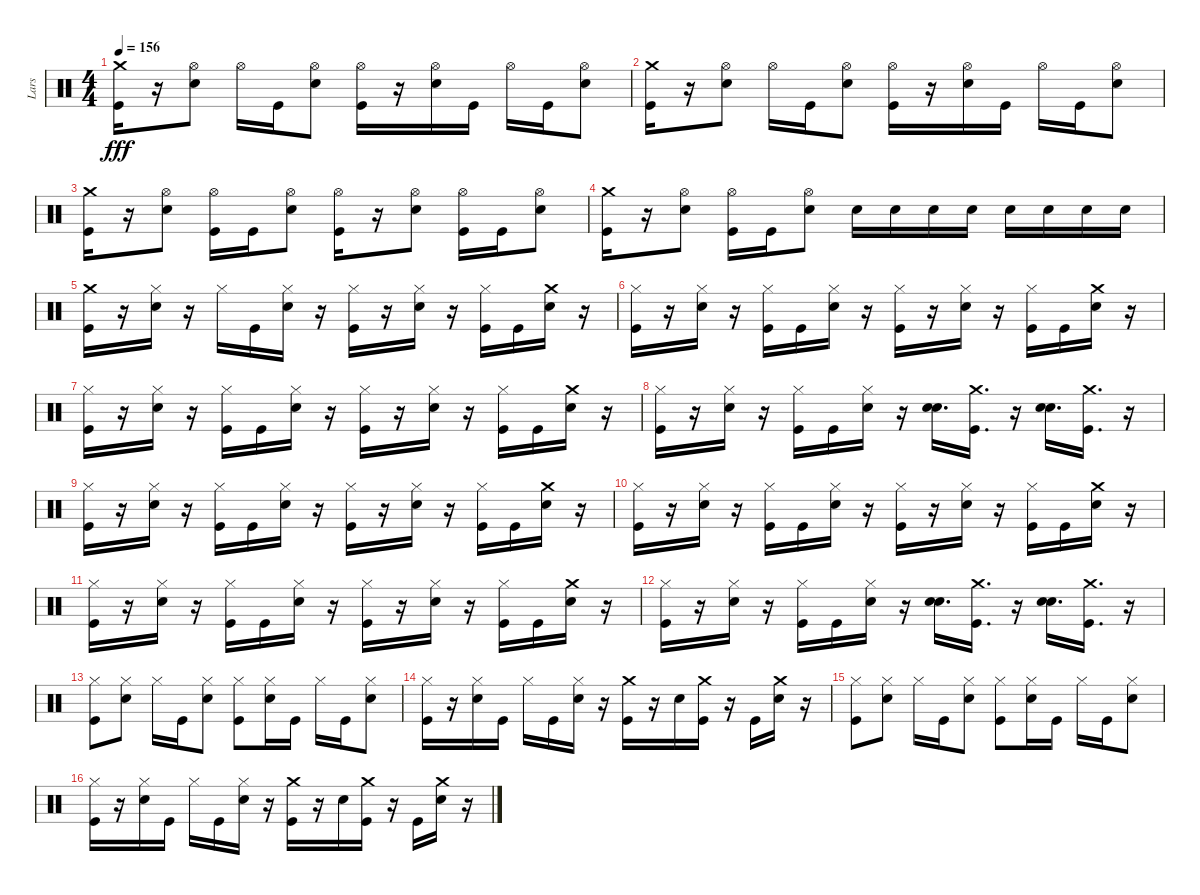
\track ("Lars" "Lars") {instrument percussion bank 102}
\staff {score}
\articulation defaults
\ts (4 4)
\tempo 156
\clef neutral
\ks c
("Kick (hit)" "Crash medium (hit)").16{dy fff} r.16 ("Snare (hit) 2" "Hi-Hat (open)").8 "Hi-Hat (open)".16 "Kick (hit)".16 ("Snare (hit) 2" "Hi-Hat (open)").8 ("Kick (hit)" "Hi-Hat (open)").16 r.16 ("Snare (hit) 2" "Hi-Hat (open)").16 "Kick (hit)".16 "Hi-Hat (open)".16 "Kick (hit)".16 ("Snare (hit) 2" "Hi-Hat (open)").8 |
("Kick (hit)" "Crash medium (hit)").16 r.16 ("Snare (hit) 2" "Hi-Hat (open)").8 "Hi-Hat (open)".16 "Kick (hit)".16 ("Snare (hit) 2" "Hi-Hat (open)").8 ("Kick (hit)" "Hi-Hat (open)").16 r.16 ("Snare (hit) 2" "Hi-Hat (open)").16 "Kick (hit)".16 "Hi-Hat (open)".16 "Kick (hit)".16 ("Snare (hit) 2" "Hi-Hat (open)").8 |
("Kick (hit)" "Crash medium (hit)").16 r.16 ("Snare (hit) 2" "Hi-Hat (open)").8 ("Kick (hit)" "Hi-Hat (open)").16 "Kick (hit)".16 ("Snare (hit) 2" "Hi-Hat (open)").8 ("Kick (hit)" "Hi-Hat (open)").16 r.16 ("Snare (hit) 2" "Hi-Hat (open)").8 ("Kick (hit)" "Hi-Hat (open)").16 "Kick (hit)".16 ("Snare (hit) 2" "Hi-Hat (open)").8 |
("Kick (hit)" "Crash medium (hit)").16 r.16 ("Snare (hit) 2" "Hi-Hat (open)").8 ("Kick (hit)" "Hi-Hat (open)").16 "Kick (hit)".16 ("Snare (hit) 2" "Hi-Hat (open)").8 "Snare (hit) 2".16 "Snare (hit) 2".16 "Snare (hit) 2".16 "Snare (hit) 2".16 "Snare (hit) 2".16 "Snare (hit) 2".16 "Snare (hit) 2".16 "Snare (hit) 2".16 |
("Crash medium (hit)" "Kick (hit)").16 r.16 ("Snare (hit) 2" "Hi-Hat (closed)").16 r.16 "Hi-Hat (closed)".16 "Kick (hit)".16 ("Snare (hit) 2" "Hi-Hat (closed)").16 r.16 ("Hi-Hat (closed)" "Kick (hit)").16 r.16 ("Snare (hit) 2" "Hi-Hat (closed)").16 r.16 ("Hi-Hat (closed)" "Kick (hit)").16 "Kick (hit)".16 ("Crash medium (hit)" "Snare (hit) 2").16 r.16 |
("Hi-Hat (closed)" "Kick (hit)").16 r.16 ("Hi-Hat (closed)" "Snare (hit) 2").16 r.16 ("Hi-Hat (closed)" "Kick (hit)").16 "Kick (hit)".16 ("Hi-Hat (closed)" "Snare (hit) 2").16 r.16 ("Hi-Hat (closed)" "Kick (hit)").16 r.16 ("Hi-Hat (closed)" "Snare (hit) 2").16 r.16 ("Hi-Hat (closed)" "Kick (hit)").16 "Kick (hit)".16 ("Crash medium (hit)" "Snare (hit) 2").16 r.16 |
("Hi-Hat (closed)" "Kick (hit)").16 r.16 ("Hi-Hat (closed)" "Snare (hit) 2").16 r.16 ("Hi-Hat (closed)" "Kick (hit)").16 "Kick (hit)".16 ("Hi-Hat (closed)" "Snare (hit) 2").16 r.16 ("Hi-Hat (closed)" "Kick (hit)").16 r.16 ("Hi-Hat (closed)" "Snare (hit) 2").16 r.16 ("Hi-Hat (closed)" "Kick (hit)").16 "Kick (hit)".16 ("Crash medium (hit)" "Snare (hit) 2").16 r.16 |
("Hi-Hat (closed)" "Kick (hit)").16 r.16 ("Hi-Hat (closed)" "Snare (hit) 2").16 r.16 ("Hi-Hat (closed)" "Kick (hit)").16 "Kick (hit)".16 ("Hi-Hat (closed)" "Snare (hit) 2").16 r.16 ("Snare (hit) 2" "Snare (hit) 2").16{d} ("Crash medium (hit)" "Kick (hit)").16{d} r.16 ("Snare (hit) 2" "Snare (hit) 2").16{d} ("Crash medium (hit)" "Kick (hit)").16{d} r.16 |
("Hi-Hat (closed)" "Kick (hit)").16 r.16 ("Hi-Hat (closed)" "Snare (hit) 2").16 r.16 ("Hi-Hat (closed)" "Kick (hit)").16 "Kick (hit)".16 ("Hi-Hat (closed)" "Snare (hit) 2").16 r.16 ("Hi-Hat (closed)" "Kick (hit)").16 r.16 ("Hi-Hat (closed)" "Snare (hit) 2").16 r.16 ("Hi-Hat (closed)" "Kick (hit)").16 "Kick (hit)".16 ("Crash medium (hit)" "Snare (hit) 2").16 r.16 |
("Hi-Hat (closed)" "Kick (hit)").16 r.16 ("Hi-Hat (closed)" "Snare (hit) 2").16 r.16 ("Hi-Hat (closed)" "Kick (hit)").16 "Kick (hit)".16 ("Hi-Hat (closed)" "Snare (hit) 2").16 r.16 ("Hi-Hat (closed)" "Kick (hit)").16 r.16 ("Hi-Hat (closed)" "Snare (hit) 2").16 r.16 ("Hi-Hat (closed)" "Kick (hit)").16 "Kick (hit)".16 ("Crash medium (hit)" "Snare (hit) 2").16 r.16 |
("Hi-Hat (closed)" "Kick (hit)").16 r.16 ("Hi-Hat (closed)" "Snare (hit) 2").16 r.16 ("Hi-Hat (closed)" "Kick (hit)").16 "Kick (hit)".16 ("Hi-Hat (closed)" "Snare (hit) 2").16 r.16 ("Hi-Hat (closed)" "Kick (hit)").16 r.16 ("Hi-Hat (closed)" "Snare (hit) 2").16 r.16 ("Hi-Hat (closed)" "Kick (hit)").16 "Kick (hit)".16 ("Crash medium (hit)" "Snare (hit) 2").16 r.16 |
("Hi-Hat (closed)" "Kick (hit)").16 r.16 ("Hi-Hat (closed)" "Snare (hit) 2").16 r.16 ("Hi-Hat (closed)" "Kick (hit)").16 "Kick (hit)".16 ("Hi-Hat (closed)" "Snare (hit) 2").16 r.16 ("Snare (hit) 2" "Snare (hit) 2").16{d} ("Crash medium (hit)" "Kick (hit)").16{d} r.16 ("Snare (hit) 2" "Snare (hit) 2").16{d} ("Crash medium (hit)" "Kick (hit)").16{d} r.16 |
("Hi-Hat (closed)" "Kick (hit)").8 ("Snare (hit) 2" "Hi-Hat (closed)").8 "Hi-Hat (closed)".16 "Kick (hit)".16 ("Snare (hit) 2" "Hi-Hat (closed)").8 ("Kick (hit)" "Hi-Hat (closed)").8 ("Snare (hit) 2" "Hi-Hat (closed)").16 "Kick (hit)".16 "Hi-Hat (closed)".16 "Kick (hit)".16 ("Snare (hit) 2" "Hi-Hat (closed)").8 |
("Hi-Hat (closed)" "Kick (hit)").16 r.16 ("Hi-Hat (closed)" "Snare (hit) 2").16 "Kick (hit)".16 "Hi-Hat (closed)".16 "Kick (hit)".16 ("Hi-Hat (closed)" "Snare (hit) 2").16 r.16 ("Crash medium (hit)" "Kick (hit)").16 r.16 "Snare (hit) 2".16 ("Crash medium (hit)" "Kick (hit)").16 r.16 "Kick (hit)".16 ("Crash medium (hit)" "Snare (hit) 2").16 r.16 |
("Hi-Hat (closed)" "Kick (hit)").8 ("Snare (hit) 2" "Hi-Hat (closed)").8 "Hi-Hat (closed)".16 "Kick (hit)".16 ("Snare (hit) 2" "Hi-Hat (closed)").8 ("Kick (hit)" "Hi-Hat (closed)").8 ("Snare (hit) 2" "Hi-Hat (closed)").16 "Kick (hit)".16 "Hi-Hat (closed)".16 "Kick (hit)".16 ("Snare (hit) 2" "Hi-Hat (closed)").8 |
("Hi-Hat (closed)" "Kick (hit)").16 r.16 ("Hi-Hat (closed)" "Snare (hit) 2").16 "Kick (hit)".16 "Hi-Hat (closed)".16 "Kick (hit)".16 ("Hi-Hat (closed)" "Snare (hit) 2").16 r.16 ("Crash medium (hit)" "Kick (hit)").16 r.16 "Snare (hit) 2".16 ("Crash medium (hit)" "Kick (hit)").16 r.16 "Kick (hit)".16 ("Crash medium (hit)" "Snare (hit) 2").16 r.16
